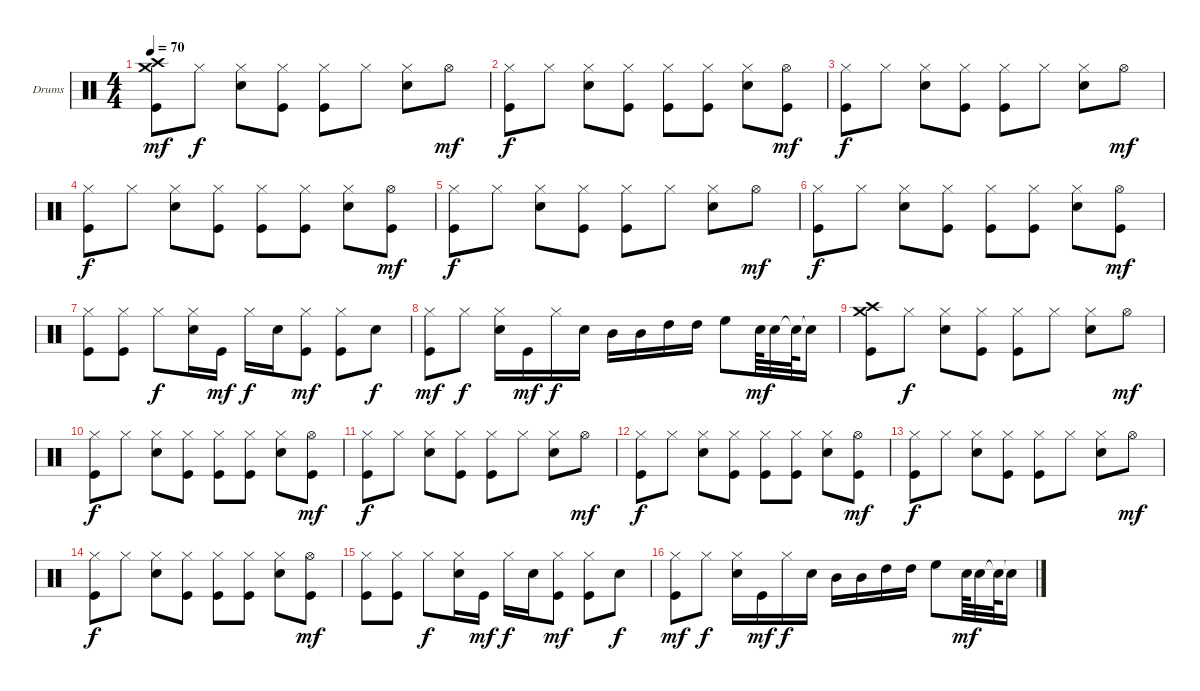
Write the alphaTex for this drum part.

\defaultSystemsLayout 4
\bracketExtendMode groupsimilarinstruments
\firstSystemTrackNameOrientation horizontal
\otherSystemsTrackNameOrientation horizontal
\track ("Drumkit" "Drums") {instrument percussion}
\staff {score}
\articulation defaults
\ts (4 4)
\tempo 70
\clef neutral
\ks c
("Kick (hit)" "Crash medium (hit)" "Crash high (hit)").8{dy mf} "Hi-Hat (closed)".8{dy f} ("Snare (hit) 2" "Hi-Hat (closed)").8 ("Kick (hit)" "Hi-Hat (closed)").8 ("Kick (hit)" "Hi-Hat (closed)").8 "Hi-Hat (closed)".8 ("Snare (hit) 2" "Hi-Hat (closed)").8 "Hi-Hat (open)".8{dy mf} |
("Kick (hit)" "Hi-Hat (closed)").8{dy f} "Hi-Hat (closed)".8 ("Snare (hit) 2" "Hi-Hat (closed)").8 ("Kick (hit)" "Hi-Hat (closed)").8 ("Kick (hit)" "Hi-Hat (closed)").8 ("Kick (hit)" "Hi-Hat (closed)").8 ("Snare (hit) 2" "Hi-Hat (closed)").8 ("Hi-Hat (open)" "Kick (hit)").8{dy mf} |
("Kick (hit)" "Hi-Hat (closed)").8{dy f} "Hi-Hat (closed)".8 ("Snare (hit) 2" "Hi-Hat (closed)").8 ("Kick (hit)" "Hi-Hat (closed)").8 ("Kick (hit)" "Hi-Hat (closed)").8 "Hi-Hat (closed)".8 ("Snare (hit) 2" "Hi-Hat (closed)").8 "Hi-Hat (open)".8{dy mf} |
("Kick (hit)" "Hi-Hat (closed)").8{dy f} "Hi-Hat (closed)".8 ("Snare (hit) 2" "Hi-Hat (closed)").8 ("Kick (hit)" "Hi-Hat (closed)").8 ("Kick (hit)" "Hi-Hat (closed)").8 ("Kick (hit)" "Hi-Hat (closed)").8 ("Snare (hit) 2" "Hi-Hat (closed)").8 ("Hi-Hat (open)" "Kick (hit)").8{dy mf} |
("Kick (hit)" "Hi-Hat (closed)").8{dy f} "Hi-Hat (closed)".8 ("Snare (hit) 2" "Hi-Hat (closed)").8 ("Kick (hit)" "Hi-Hat (closed)").8 ("Kick (hit)" "Hi-Hat (closed)").8 "Hi-Hat (closed)".8 ("Snare (hit) 2" "Hi-Hat (closed)").8 "Hi-Hat (open)".8{dy mf} |
("Kick (hit)" "Hi-Hat (closed)").8{dy f} "Hi-Hat (closed)".8 ("Snare (hit) 2" "Hi-Hat (closed)").8 ("Kick (hit)" "Hi-Hat (closed)").8 ("Kick (hit)" "Hi-Hat (closed)").8 ("Kick (hit)" "Hi-Hat (closed)").8 ("Snare (hit) 2" "Hi-Hat (closed)").8 ("Hi-Hat (open)" "Kick (hit)").8{dy mf} |
("Kick (hit)" "Hi-Hat (closed)").8 ("Kick (hit)" "Hi-Hat (closed)").8 "Hi-Hat (closed)".8{dy f} ("Snare (hit) 2" "Hi-Hat (closed)").16 "Kick (hit)".16{dy mf} "Hi-Hat (closed)".16{dy f} "Snare (hit) 2".16 ("Kick (hit)" "Hi-Hat (closed)").8{dy mf} ("Kick (hit)" "Hi-Hat (closed)").8 "Snare (hit) 2".8{dy f} |
("Kick (hit)" "Hi-Hat (closed)").8{dy mf} "Hi-Hat (closed)".8{dy f} ("Snare (hit) 2" "Hi-Hat (closed)").16 "Kick (hit)".16{dy mf} "Hi-Hat (closed)".16{dy f} "Snare (hit) 2".16 "Mid Tom (hit)".16 "Mid Tom (hit)".16 "High Tom (hit)".16 "High Tom (hit)".16 "High Floor Tom (hit)".8 "Snare (hit) 2".64{dy mf} "Snare (hit) 2".32 "Snare (hit) 2"{t}.64 "Snare (hit) 2"{t}.16 |
("Kick (hit)" "Crash medium (hit)" "Crash high (hit)").8 "Hi-Hat (closed)".8{dy f} ("Snare (hit) 2" "Hi-Hat (closed)").8 ("Kick (hit)" "Hi-Hat (closed)").8 ("Kick (hit)" "Hi-Hat (closed)").8 "Hi-Hat (closed)".8 ("Snare (hit) 2" "Hi-Hat (closed)").8 "Hi-Hat (open)".8{dy mf} |
("Kick (hit)" "Hi-Hat (closed)").8{dy f} "Hi-Hat (closed)".8 ("Snare (hit) 2" "Hi-Hat (closed)").8 ("Kick (hit)" "Hi-Hat (closed)").8 ("Kick (hit)" "Hi-Hat (closed)").8 ("Kick (hit)" "Hi-Hat (closed)").8 ("Snare (hit) 2" "Hi-Hat (closed)").8 ("Hi-Hat (open)" "Kick (hit)").8{dy mf} |
("Kick (hit)" "Hi-Hat (closed)").8{dy f} "Hi-Hat (closed)".8 ("Snare (hit) 2" "Hi-Hat (closed)").8 ("Kick (hit)" "Hi-Hat (closed)").8 ("Kick (hit)" "Hi-Hat (closed)").8 "Hi-Hat (closed)".8 ("Snare (hit) 2" "Hi-Hat (closed)").8 "Hi-Hat (open)".8{dy mf} |
("Kick (hit)" "Hi-Hat (closed)").8{dy f} "Hi-Hat (closed)".8 ("Snare (hit) 2" "Hi-Hat (closed)").8 ("Kick (hit)" "Hi-Hat (closed)").8 ("Kick (hit)" "Hi-Hat (closed)").8 ("Kick (hit)" "Hi-Hat (closed)").8 ("Snare (hit) 2" "Hi-Hat (closed)").8 ("Hi-Hat (open)" "Kick (hit)").8{dy mf} |
("Kick (hit)" "Hi-Hat (closed)").8{dy f} "Hi-Hat (closed)".8 ("Snare (hit) 2" "Hi-Hat (closed)").8 ("Kick (hit)" "Hi-Hat (closed)").8 ("Kick (hit)" "Hi-Hat (closed)").8 "Hi-Hat (closed)".8 ("Snare (hit) 2" "Hi-Hat (closed)").8 "Hi-Hat (open)".8{dy mf} |
("Kick (hit)" "Hi-Hat (closed)").8{dy f} "Hi-Hat (closed)".8 ("Snare (hit) 2" "Hi-Hat (closed)").8 ("Kick (hit)" "Hi-Hat (closed)").8 ("Kick (hit)" "Hi-Hat (closed)").8 ("Kick (hit)" "Hi-Hat (closed)").8 ("Snare (hit) 2" "Hi-Hat (closed)").8 ("Hi-Hat (open)" "Kick (hit)").8{dy mf} |
("Kick (hit)" "Hi-Hat (closed)").8 ("Kick (hit)" "Hi-Hat (closed)").8 "Hi-Hat (closed)".8{dy f} ("Snare (hit) 2" "Hi-Hat (closed)").16 "Kick (hit)".16{dy mf} "Hi-Hat (closed)".16{dy f} "Snare (hit) 2".16 ("Kick (hit)" "Hi-Hat (closed)").8{dy mf} ("Kick (hit)" "Hi-Hat (closed)").8 "Snare (hit) 2".8{dy f} |
("Kick (hit)" "Hi-Hat (closed)").8{dy mf} "Hi-Hat (closed)".8{dy f} ("Snare (hit) 2" "Hi-Hat (closed)").16 "Kick (hit)".16{dy mf} "Hi-Hat (closed)".16{dy f} "Snare (hit) 2".16 "Mid Tom (hit)".16 "Mid Tom (hit)".16 "High Tom (hit)".16 "High Tom (hit)".16 "High Floor Tom (hit)".8 "Snare (hit) 2".64{dy mf} "Snare (hit) 2".32 "Snare (hit) 2"{t}.64 "Snare (hit) 2"{t}.16
